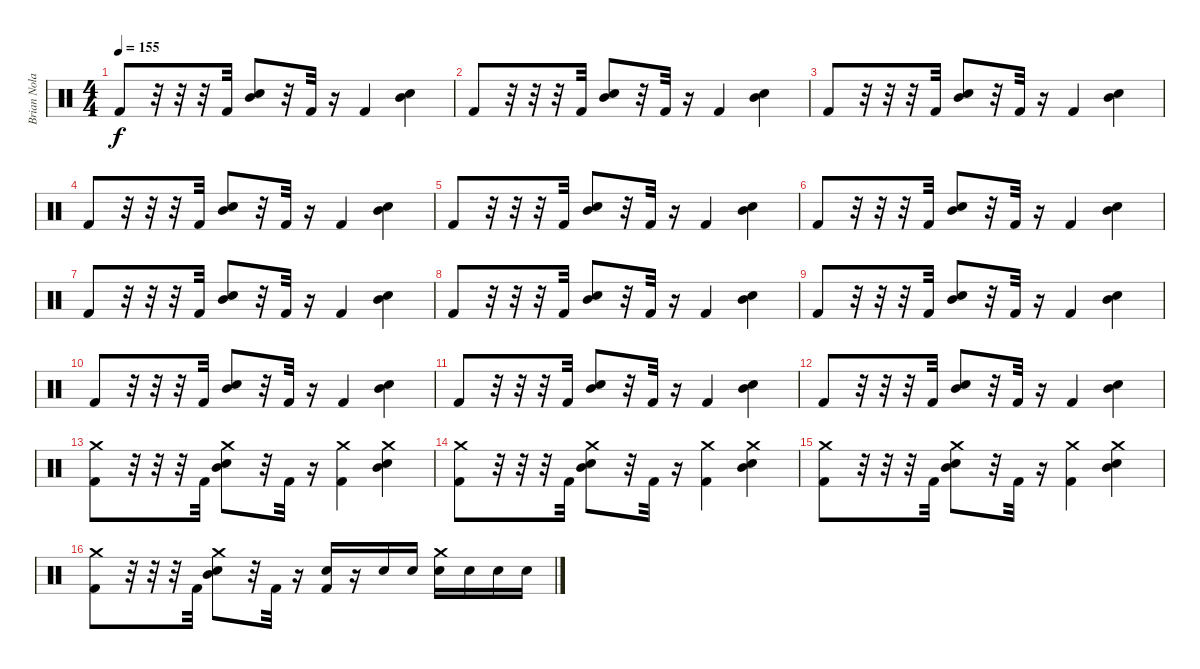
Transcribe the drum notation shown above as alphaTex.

\track ("Brian Nolan" "Brian Nola") {instrument percussion}
\staff {score}
\articulation defaults
\ts (4 4)
\tempo 155
\clef neutral
\ks c "Kick (hit) 2".8{dy f}
r.32 r.32 r.32 "Kick (hit) 2".32 ("Snare (hit) 2" "Mid Tom (hit)").8 r.32 "Kick (hit) 2".32 r.16 "Kick (hit) 2".4 ("Snare (hit) 2" "Mid Tom (hit)").4 |
"Kick (hit) 2".8 r.32 r.32 r.32 "Kick (hit) 2".32 ("Snare (hit) 2" "Mid Tom (hit)").8 r.32 "Kick (hit) 2".32 r.16 "Kick (hit) 2".4 ("Snare (hit) 2" "Mid Tom (hit)").4 |
"Kick (hit) 2".8 r.32 r.32 r.32 "Kick (hit) 2".32 ("Snare (hit) 2" "Mid Tom (hit)").8 r.32 "Kick (hit) 2".32 r.16 "Kick (hit) 2".4 ("Snare (hit) 2" "Mid Tom (hit)").4 |
"Kick (hit) 2".8 r.32 r.32 r.32 "Kick (hit) 2".32 ("Snare (hit) 2" "Mid Tom (hit)").8 r.32 "Kick (hit) 2".32 r.16 "Kick (hit) 2".4 ("Snare (hit) 2" "Mid Tom (hit)").4 |
"Kick (hit) 2".8 r.32 r.32 r.32 "Kick (hit) 2".32 ("Snare (hit) 2" "Mid Tom (hit)").8 r.32 "Kick (hit) 2".32 r.16 "Kick (hit) 2".4 ("Snare (hit) 2" "Mid Tom (hit)").4 |
"Kick (hit) 2".8 r.32 r.32 r.32 "Kick (hit) 2".32 ("Snare (hit) 2" "Mid Tom (hit)").8 r.32 "Kick (hit) 2".32 r.16 "Kick (hit) 2".4 ("Snare (hit) 2" "Mid Tom (hit)").4 |
"Kick (hit) 2".8 r.32 r.32 r.32 "Kick (hit) 2".32 ("Snare (hit) 2" "Mid Tom (hit)").8 r.32 "Kick (hit) 2".32 r.16 "Kick (hit) 2".4 ("Snare (hit) 2" "Mid Tom (hit)").4 |
"Kick (hit) 2".8 r.32 r.32 r.32 "Kick (hit) 2".32 ("Snare (hit) 2" "Mid Tom (hit)").8 r.32 "Kick (hit) 2".32 r.16 "Kick (hit) 2".4 ("Snare (hit) 2" "Mid Tom (hit)").4 |
"Kick (hit) 2".8 r.32 r.32 r.32 "Kick (hit) 2".32 ("Snare (hit) 2" "Mid Tom (hit)").8 r.32 "Kick (hit) 2".32 r.16 "Kick (hit) 2".4 ("Snare (hit) 2" "Mid Tom (hit)").4 |
"Kick (hit) 2".8 r.32 r.32 r.32 "Kick (hit) 2".32 ("Snare (hit) 2" "Mid Tom (hit)").8 r.32 "Kick (hit) 2".32 r.16 "Kick (hit) 2".4 ("Snare (hit) 2" "Mid Tom (hit)").4 |
"Kick (hit) 2".8 r.32 r.32 r.32 "Kick (hit) 2".32 ("Snare (hit) 2" "Mid Tom (hit)").8 r.32 "Kick (hit) 2".32 r.16 "Kick (hit) 2".4 ("Snare (hit) 2" "Mid Tom (hit)").4 |
"Kick (hit) 2".8 r.32 r.32 r.32 "Kick (hit) 2".32 ("Snare (hit) 2" "Mid Tom (hit)").8 r.32 "Kick (hit) 2".32 r.16 "Kick (hit) 2".4 ("Snare (hit) 2" "Mid Tom (hit)").4 |
("Crash medium (hit)" "Kick (hit) 2").8 r.32 r.32 r.32 "Kick (hit) 2".32 ("Snare (hit) 2" "Mid Tom (hit)" "Crash medium (hit)").8 r.32 "Kick (hit) 2".32 r.16 ("Crash medium (hit)" "Kick (hit) 2").4 ("Snare (hit) 2" "Mid Tom (hit)" "Crash medium (hit)").4 |
("Crash medium (hit)" "Kick (hit) 2").8 r.32 r.32 r.32 "Kick (hit) 2".32 ("Snare (hit) 2" "Mid Tom (hit)" "Crash medium (hit)").8 r.32 "Kick (hit) 2".32 r.16 ("Crash medium (hit)" "Kick (hit) 2").4 ("Snare (hit) 2" "Mid Tom (hit)" "Crash medium (hit)").4 |
("Crash medium (hit)" "Kick (hit) 2").8 r.32 r.32 r.32 "Kick (hit) 2".32 ("Snare (hit) 2" "Mid Tom (hit)" "Crash medium (hit)").8 r.32 "Kick (hit) 2".32 r.16 ("Crash medium (hit)" "Kick (hit) 2").4 ("Snare (hit) 2" "Mid Tom (hit)" "Crash medium (hit)").4 |
("Crash medium (hit)" "Kick (hit) 2").8 r.32 r.32 r.32 "Kick (hit) 2".32 ("Snare (hit) 2" "Mid Tom (hit)" "Crash medium (hit)").8 r.32 "Kick (hit) 2".32 r.16 ("Snare (hit) 2" "Kick (hit) 2").16 r.16 "Snare (hit) 2".16 "Snare (hit) 2".16 ("Snare (hit) 2" "Crash medium (hit)").16 "Snare (hit) 2".16 "Snare (hit) 2".16 "Snare (hit) 2".16
